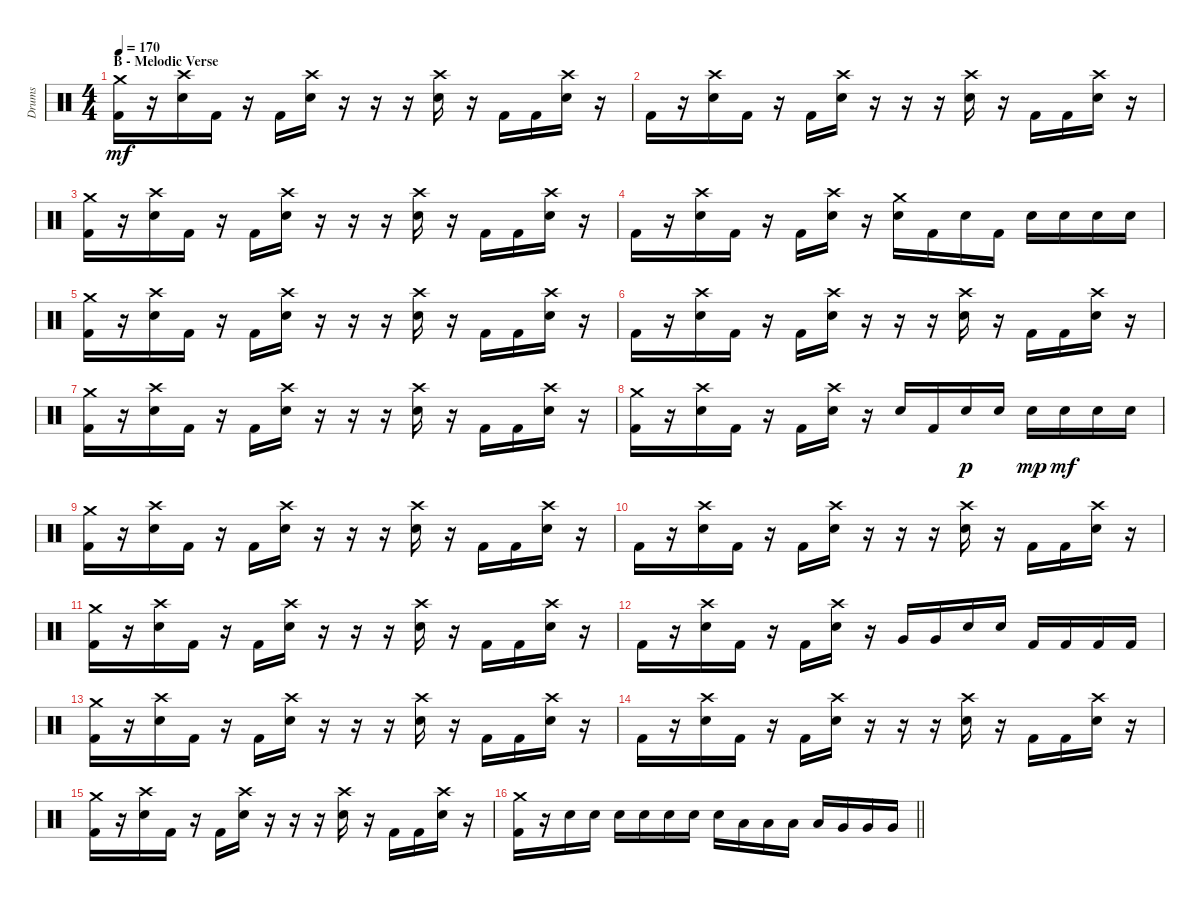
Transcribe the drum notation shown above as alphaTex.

\track ("Drums" "Drums") {instrument percussion}
\staff {score}
\articulation defaults
\ts (4 4)
\section ("" "B - Melodic Verse")
\tempo 170
\clef neutral
\ks c
("Crash medium (hit)" "Kick (hit) 2").16{dy mf} r.16 ("Crash high (hit)" "Electric Snare (hit)").16 "Kick (hit) 2".16 r.16 "Kick (hit) 2".16 ("Crash high (hit)" "Electric Snare (hit)").16 r.16 r.16 r.16 ("Crash high (hit)" "Electric Snare (hit)").16 r.16 "Kick (hit) 2".16 "Kick (hit) 2".16 ("Crash high (hit)" "Electric Snare (hit)").16 r.16 |
"Kick (hit) 2".16 r.16 ("Crash high (hit)" "Electric Snare (hit)").16 "Kick (hit) 2".16 r.16 "Kick (hit) 2".16 ("Crash high (hit)" "Electric Snare (hit)").16 r.16 r.16 r.16 ("Crash high (hit)" "Electric Snare (hit)").16 r.16 "Kick (hit) 2".16 "Kick (hit) 2".16 ("Crash high (hit)" "Electric Snare (hit)").16 r.16 |
("Crash medium (hit)" "Kick (hit) 2").16 r.16 ("Crash high (hit)" "Electric Snare (hit)").16 "Kick (hit) 2".16 r.16 "Kick (hit) 2".16 ("Crash high (hit)" "Electric Snare (hit)").16 r.16 r.16 r.16 ("Crash high (hit)" "Electric Snare (hit)").16 r.16 "Kick (hit) 2".16 "Kick (hit) 2".16 ("Crash high (hit)" "Electric Snare (hit)").16 r.16 |
"Kick (hit) 2".16 r.16 ("Crash high (hit)" "Electric Snare (hit)").16 "Kick (hit) 2".16 r.16 "Kick (hit) 2".16 ("Crash high (hit)" "Electric Snare (hit)").16 r.16 ("Crash medium (hit)" "Electric Snare (hit)").16 "Kick (hit) 2".16 "Electric Snare (hit)".16 "Kick (hit) 2".16 "Electric Snare (hit)".16 "Electric Snare (hit)".16 "Electric Snare (hit)".16 "Electric Snare (hit)".16 |
("Crash medium (hit)" "Kick (hit) 2").16 r.16 ("Crash high (hit)" "Electric Snare (hit)").16 "Kick (hit) 2".16 r.16 "Kick (hit) 2".16 ("Crash high (hit)" "Electric Snare (hit)").16 r.16 r.16 r.16 ("Crash high (hit)" "Electric Snare (hit)").16 r.16 "Kick (hit) 2".16 "Kick (hit) 2".16 ("Crash high (hit)" "Electric Snare (hit)").16 r.16 |
"Kick (hit) 2".16 r.16 ("Crash high (hit)" "Electric Snare (hit)").16 "Kick (hit) 2".16 r.16 "Kick (hit) 2".16 ("Crash high (hit)" "Electric Snare (hit)").16 r.16 r.16 r.16 ("Crash high (hit)" "Electric Snare (hit)").16 r.16 "Kick (hit) 2".16 "Kick (hit) 2".16 ("Crash high (hit)" "Electric Snare (hit)").16 r.16 |
("Crash medium (hit)" "Kick (hit) 2").16 r.16 ("Crash high (hit)" "Electric Snare (hit)").16 "Kick (hit) 2".16 r.16 "Kick (hit) 2".16 ("Crash high (hit)" "Electric Snare (hit)").16 r.16 r.16 r.16 ("Crash high (hit)" "Electric Snare (hit)").16 r.16 "Kick (hit) 2".16 "Kick (hit) 2".16 ("Crash high (hit)" "Electric Snare (hit)").16 r.16 |
("Crash medium (hit)" "Kick (hit) 2").16 r.16 ("Crash high (hit)" "Electric Snare (hit)").16 "Kick (hit) 2".16 r.16 "Kick (hit) 2".16 ("Crash high (hit)" "Electric Snare (hit)").16 r.16 "Electric Snare (hit)".16 "Kick (hit) 2".16 "Electric Snare (hit)".16{dy p} "Electric Snare (hit)".16 "Electric Snare (hit)".16{dy mp} "Electric Snare (hit)".16{dy mf} "Electric Snare (hit)".16 "Electric Snare (hit)".16 |
("Crash medium (hit)" "Kick (hit) 2").16 r.16 ("Crash high (hit)" "Electric Snare (hit)").16 "Kick (hit) 2".16 r.16 "Kick (hit) 2".16 ("Crash high (hit)" "Electric Snare (hit)").16 r.16 r.16 r.16 ("Crash high (hit)" "Electric Snare (hit)").16 r.16 "Kick (hit) 2".16 "Kick (hit) 2".16 ("Crash high (hit)" "Electric Snare (hit)").16 r.16 |
"Kick (hit) 2".16 r.16 ("Crash high (hit)" "Electric Snare (hit)").16 "Kick (hit) 2".16 r.16 "Kick (hit) 2".16 ("Crash high (hit)" "Electric Snare (hit)").16 r.16 r.16 r.16 ("Crash high (hit)" "Electric Snare (hit)").16 r.16 "Kick (hit) 2".16 "Kick (hit) 2".16 ("Crash high (hit)" "Electric Snare (hit)").16 r.16 |
("Crash medium (hit)" "Kick (hit) 2").16 r.16 ("Crash high (hit)" "Electric Snare (hit)").16 "Kick (hit) 2".16 r.16 "Kick (hit) 2".16 ("Crash high (hit)" "Electric Snare (hit)").16 r.16 r.16 r.16 ("Crash high (hit)" "Electric Snare (hit)").16 r.16 "Kick (hit) 2".16 "Kick (hit) 2".16 ("Crash high (hit)" "Electric Snare (hit)").16 r.16 |
"Kick (hit) 2".16 r.16 ("Crash high (hit)" "Electric Snare (hit)").16 "Kick (hit) 2".16 r.16 "Kick (hit) 2".16 ("Crash high (hit)" "Electric Snare (hit)").16 r.16 "Very Low Tom (hit)".16 "Very Low Tom (hit)".16 "Electric Snare (hit)".16 "Electric Snare (hit)".16 "Kick (hit) 2".16 "Kick (hit) 2".16 "Kick (hit) 2".16 "Kick (hit) 2".16 |
("Crash medium (hit)" "Kick (hit) 2").16 r.16 ("Crash high (hit)" "Electric Snare (hit)").16 "Kick (hit) 2".16 r.16 "Kick (hit) 2".16 ("Crash high (hit)" "Electric Snare (hit)").16 r.16 r.16 r.16 ("Crash high (hit)" "Electric Snare (hit)").16 r.16 "Kick (hit) 2".16 "Kick (hit) 2".16 ("Crash high (hit)" "Electric Snare (hit)").16 r.16 |
"Kick (hit) 2".16 r.16 ("Crash high (hit)" "Electric Snare (hit)").16 "Kick (hit) 2".16 r.16 "Kick (hit) 2".16 ("Crash high (hit)" "Electric Snare (hit)").16 r.16 r.16 r.16 ("Crash high (hit)" "Electric Snare (hit)").16 r.16 "Kick (hit) 2".16 "Kick (hit) 2".16 ("Crash high (hit)" "Electric Snare (hit)").16 r.16 |
("Crash medium (hit)" "Kick (hit) 2").16 r.16 ("Crash high (hit)" "Electric Snare (hit)").16 "Kick (hit) 2".16 r.16 "Kick (hit) 2".16 ("Crash high (hit)" "Electric Snare (hit)").16 r.16 r.16 r.16 ("Crash high (hit)" "Electric Snare (hit)").16 r.16 "Kick (hit) 2".16 "Kick (hit) 2".16 ("Crash high (hit)" "Electric Snare (hit)").16 r.16 |
\barLineRight lightlight
("Crash medium (hit)" "Kick (hit) 2").16 r.16 "Electric Snare (hit)".16 "Electric Snare (hit)".16 "Electric Snare (hit)".16 "Electric Snare (hit)".16 "Electric Snare (hit)".16 "Electric Snare (hit)".16 "Electric Snare (hit)".16 "Low Tom (hit)".16 "Low Tom (hit)".16 "Low Tom (hit)".16 "Low Tom (hit)".16 "Very Low Tom (hit)".16 "Very Low Tom (hit)".16 "Very Low Tom (hit)".16
